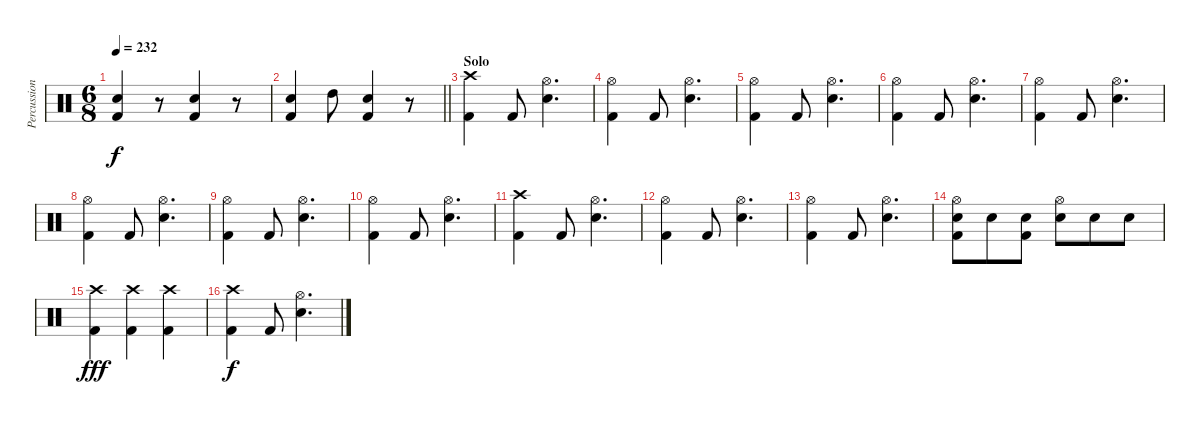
\track ("Percussion" "Percussion") {instrument percussion}
\staff {score}
\articulation defaults
\ts (6 8)
\tempo 232
\clef neutral
\ks c
("Electric Snare (hit)" "Kick (hit) 2").4{dy f} r.8 ("Electric Snare (hit)" "Kick (hit) 2").4 r.8 |
\barLineRight lightlight
("Electric Snare (hit)" "Kick (hit) 2").4 "High Tom (hit)".8 ("Electric Snare (hit)" "Kick (hit) 2").4 r.8 |
\section ("" "Solo")
("Crash high (hit)" "Kick (hit) 2").4 "Kick (hit) 2".8 ("Hi-Hat (open)" "Electric Snare (hit)").4{d} |
("Hi-Hat (open)" "Kick (hit) 2").4 "Kick (hit) 2".8 ("Hi-Hat (open)" "Electric Snare (hit)").4{d} |
("Hi-Hat (open)" "Kick (hit) 2").4 "Kick (hit) 2".8 ("Hi-Hat (open)" "Electric Snare (hit)").4{d} |
("Hi-Hat (open)" "Kick (hit) 2").4 "Kick (hit) 2".8 ("Hi-Hat (open)" "Electric Snare (hit)").4{d} |
("Hi-Hat (open)" "Kick (hit) 2").4 "Kick (hit) 2".8 ("Hi-Hat (open)" "Electric Snare (hit)").4{d} |
("Hi-Hat (open)" "Kick (hit) 2").4 "Kick (hit) 2".8 ("Hi-Hat (open)" "Electric Snare (hit)").4{d} |
("Hi-Hat (open)" "Kick (hit) 2").4 "Kick (hit) 2".8 ("Hi-Hat (open)" "Electric Snare (hit)").4{d} |
("Hi-Hat (open)" "Kick (hit) 2").4 "Kick (hit) 2".8 ("Hi-Hat (open)" "Electric Snare (hit)").4{d} |
("Crash high (hit)" "Kick (hit) 2").4 "Kick (hit) 2".8 ("Hi-Hat (open)" "Electric Snare (hit)").4{d} |
("Hi-Hat (open)" "Kick (hit) 2").4 "Kick (hit) 2".8 ("Hi-Hat (open)" "Electric Snare (hit)").4{d} |
("Hi-Hat (open)" "Kick (hit) 2").4 "Kick (hit) 2".8 ("Hi-Hat (open)" "Electric Snare (hit)").4{d} |
("Hi-Hat (open)" "Electric Snare (hit)" "Kick (hit) 2").8 "Electric Snare (hit)".8 ("Electric Snare (hit)" "Kick (hit) 2").8 ("Hi-Hat (open)" "Electric Snare (hit)").8 "Electric Snare (hit)".8 "Electric Snare (hit)".8 |
("Crash high (hit)" "Kick (hit) 2").4{dy fff} ("Crash high (hit)" "Kick (hit) 2").4 ("Crash high (hit)" "Kick (hit) 2").4 |
("Crash high (hit)" "Kick (hit) 2").4{dy f} "Kick (hit) 2".8 ("Hi-Hat (open)" "Electric Snare (hit)").4{d}
